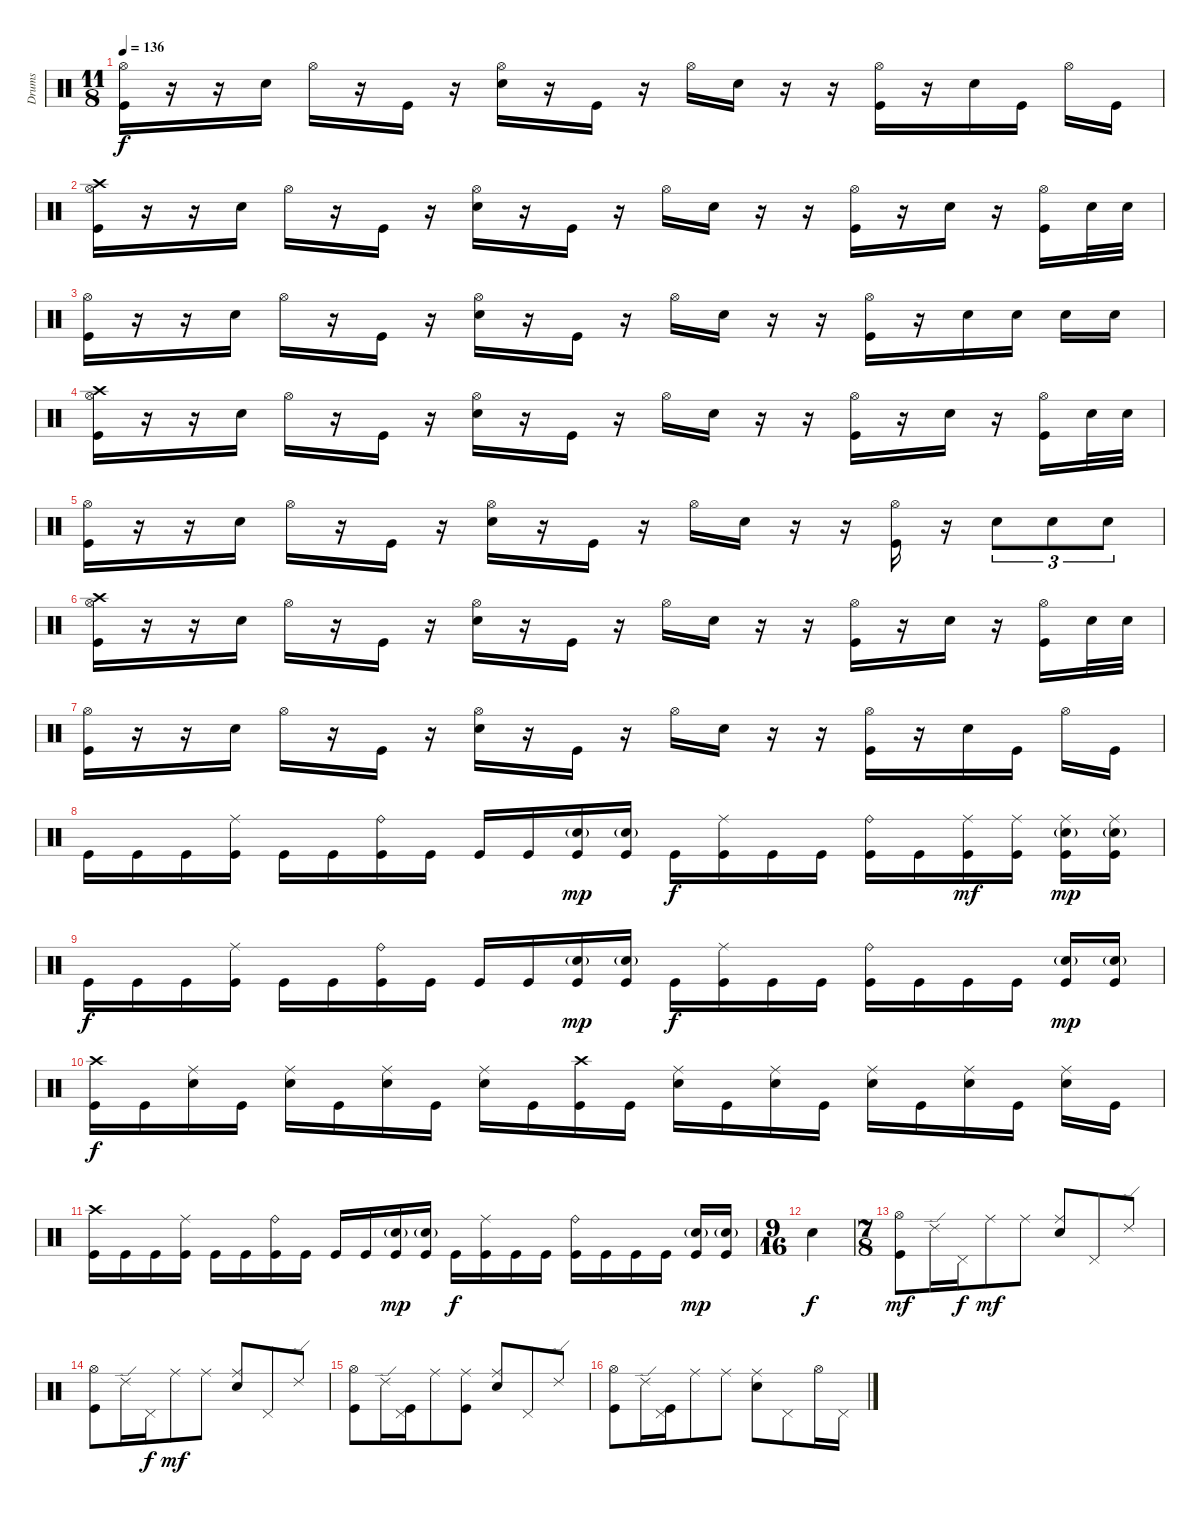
\track ("Drums" "Drums") {instrument percussion}
\staff {score}
\articulation defaults
\ts (11 8)
\tempo 136
\clef neutral
\ks c
("Hi-Hat (open)" "Kick (hit)").16{dy f} r.16 r.16 "Electric Snare (hit)".16 "Hi-Hat (open)".16 r.16 "Kick (hit)".16 r.16 ("Hi-Hat (open)" "Electric Snare (hit)").16 r.16 "Kick (hit)".16 r.16 "Hi-Hat (open)".16 "Electric Snare (hit)".16 r.16 r.16 ("Hi-Hat (open)" "Kick (hit)").16 r.16 "Electric Snare (hit)".16 "Kick (hit)".16 "Hi-Hat (open)".16 "Kick (hit)".16 |
("Crash high (hit)" "Hi-Hat (open)" "Kick (hit)").16 r.16 r.16 "Electric Snare (hit)".16 "Hi-Hat (open)".16 r.16 "Kick (hit)".16 r.16 ("Hi-Hat (open)" "Electric Snare (hit)").16 r.16 "Kick (hit)".16 r.16 "Hi-Hat (open)".16 "Electric Snare (hit)".16 r.16 r.16 ("Hi-Hat (open)" "Kick (hit)").16 r.16 "Electric Snare (hit)".16 r.16 ("Hi-Hat (open)" "Kick (hit)").16 "Electric Snare (hit)".32 "Electric Snare (hit)".32 |
("Hi-Hat (open)" "Kick (hit)").16 r.16 r.16 "Electric Snare (hit)".16 "Hi-Hat (open)".16 r.16 "Kick (hit)".16 r.16 ("Hi-Hat (open)" "Electric Snare (hit)").16 r.16 "Kick (hit)".16 r.16 "Hi-Hat (open)".16 "Electric Snare (hit)".16 r.16 r.16 ("Hi-Hat (open)" "Kick (hit)").16 r.16 "Electric Snare (hit)".16 "Electric Snare (hit)".16 "Electric Snare (hit)".16 "Electric Snare (hit)".16 |
("Crash high (hit)" "Hi-Hat (open)" "Kick (hit)").16 r.16 r.16 "Electric Snare (hit)".16 "Hi-Hat (open)".16 r.16 "Kick (hit)".16 r.16 ("Hi-Hat (open)" "Electric Snare (hit)").16 r.16 "Kick (hit)".16 r.16 "Hi-Hat (open)".16 "Electric Snare (hit)".16 r.16 r.16 ("Hi-Hat (open)" "Kick (hit)").16 r.16 "Electric Snare (hit)".16 r.16 ("Hi-Hat (open)" "Kick (hit)").16 "Electric Snare (hit)".32 "Electric Snare (hit)".32 |
("Hi-Hat (open)" "Kick (hit)").16 r.16 r.16 "Electric Snare (hit)".16 "Hi-Hat (open)".16 r.16 "Kick (hit)".16 r.16 ("Hi-Hat (open)" "Electric Snare (hit)").16 r.16 "Kick (hit)".16 r.16 "Hi-Hat (open)".16 "Electric Snare (hit)".16 r.16 r.16 ("Hi-Hat (open)" "Kick (hit)").16 r.16 "Electric Snare (hit)".8{tu (3 2)} "Electric Snare (hit)".8{tu (3 2)} "Electric Snare (hit)".8{tu (3 2)} |
("Crash high (hit)" "Hi-Hat (open)" "Kick (hit)").16 r.16 r.16 "Electric Snare (hit)".16 "Hi-Hat (open)".16 r.16 "Kick (hit)".16 r.16 ("Hi-Hat (open)" "Electric Snare (hit)").16 r.16 "Kick (hit)".16 r.16 "Hi-Hat (open)".16 "Electric Snare (hit)".16 r.16 r.16 ("Hi-Hat (open)" "Kick (hit)").16 r.16 "Electric Snare (hit)".16 r.16 ("Hi-Hat (open)" "Kick (hit)").16 "Electric Snare (hit)".32 "Electric Snare (hit)".32 |
("Hi-Hat (open)" "Kick (hit)").16 r.16 r.16 "Electric Snare (hit)".16 "Hi-Hat (open)".16 r.16 "Kick (hit)".16 r.16 ("Hi-Hat (open)" "Electric Snare (hit)").16 r.16 "Kick (hit)".16 r.16 "Hi-Hat (open)".16 "Electric Snare (hit)".16 r.16 r.16 ("Hi-Hat (open)" "Kick (hit)").16 r.16 "Electric Snare (hit)".16 "Kick (hit)".16 "Hi-Hat (open)".16 "Kick (hit)".16 |
"Kick (hit)".16 "Kick (hit)".16 "Kick (hit)".16 ("Ride (middle)" "Kick (hit)").16 "Kick (hit)".16 "Kick (hit)".16 ("Ride (bell)" "Kick (hit)").16 "Kick (hit)".16 "Kick (hit)".16 "Kick (hit)".16 ("Electric Snare (hit)"{g} "Kick (hit)").16{dy mp} ("Electric Snare (hit)"{g} "Kick (hit)").16 "Kick (hit)".16{dy f} ("Ride (middle)" "Kick (hit)").16 "Kick (hit)".16 "Kick (hit)".16 ("Ride (bell)" "Kick (hit)").16 "Kick (hit)".16 ("Ride (middle)" "Kick (hit)").16{dy mf} ("Ride (middle)" "Kick (hit)").16 ("Ride (middle)" "Electric Snare (hit)"{g} "Kick (hit)").16{dy mp} ("Ride (middle)" "Electric Snare (hit)"{g} "Kick (hit)").16 |
"Kick (hit)".16{dy f} "Kick (hit)".16 "Kick (hit)".16 ("Ride (middle)" "Kick (hit)").16 "Kick (hit)".16 "Kick (hit)".16 ("Ride (bell)" "Kick (hit)").16 "Kick (hit)".16 "Kick (hit)".16 "Kick (hit)".16 ("Electric Snare (hit)"{g} "Kick (hit)").16{dy mp} ("Electric Snare (hit)"{g} "Kick (hit)").16 "Kick (hit)".16{dy f} ("Ride (middle)" "Kick (hit)").16 "Kick (hit)".16 "Kick (hit)".16 ("Ride (bell)" "Kick (hit)").16 "Kick (hit)".16 "Kick (hit)".16 "Kick (hit)".16 ("Electric Snare (hit)"{g} "Kick (hit)").16{dy mp} ("Electric Snare (hit)"{g} "Kick (hit)").16 |
("Crash high (hit)" "Kick (hit)").16{dy f} "Kick (hit)".16 ("Ride (middle)" "Electric Snare (hit)").16 "Kick (hit)".16 ("Ride (middle)" "Electric Snare (hit)").16 "Kick (hit)".16 ("Ride (middle)" "Electric Snare (hit)").16 "Kick (hit)".16 ("Ride (middle)" "Electric Snare (hit)").16 "Kick (hit)".16 ("Crash high (hit)" "Kick (hit)").16 "Kick (hit)".16 ("Ride (middle)" "Electric Snare (hit)").16 "Kick (hit)".16 ("Ride (middle)" "Electric Snare (hit)").16 "Kick (hit)".16 ("Ride (middle)" "Electric Snare (hit)").16 "Kick (hit)".16 ("Ride (middle)" "Electric Snare (hit)").16 "Kick (hit)".16 ("Ride (middle)" "Electric Snare (hit)").16 "Kick (hit)".16 |
("Crash high (hit)" "Kick (hit)").16 "Kick (hit)".16 "Kick (hit)".16 ("Ride (middle)" "Kick (hit)").16 "Kick (hit)".16 "Kick (hit)".16 ("Ride (bell)" "Kick (hit)").16 "Kick (hit)".16 "Kick (hit)".16 "Kick (hit)".16 ("Electric Snare (hit)"{g} "Kick (hit)").16{dy mp} ("Electric Snare (hit)"{g} "Kick (hit)").16 "Kick (hit)".16{dy f} ("Ride (middle)" "Kick (hit)").16 "Kick (hit)".16 "Kick (hit)".16 ("Ride (bell)" "Kick (hit)").16 "Kick (hit)".16 "Kick (hit)".16 "Kick (hit)".16 ("Electric Snare (hit)"{g} "Kick (hit)").16{dy mp} ("Electric Snare (hit)"{g} "Kick (hit)").16 |
\ts (9 16)
"Electric Snare (hit)".4{dy f} |
\ts (7 8)
("Hi-Hat (open)" "Kick (hit)").8{dy mf} "Ride (edge) 2".16 "Pedal Hi-Hat (hit)".16{dy f} "Ride (middle)".8{dy mf} "Ride (middle)".8 ("Ride (middle)" "Electric Snare (hit)").8 "Pedal Hi-Hat (hit)".8 "Ride (edge) 2".8 |
("Hi-Hat (open)" "Kick (hit)").8 "Ride (edge) 2".16 "Pedal Hi-Hat (hit)".16{dy f} "Ride (middle)".8{dy mf} "Ride (middle)".8 ("Ride (middle)" "Electric Snare (hit)").8 "Pedal Hi-Hat (hit)".8 "Ride (edge) 2".8 |
("Hi-Hat (open)" "Kick (hit)").8 "Ride (edge) 2".16 ("Pedal Hi-Hat (hit)" "Kick (hit)").16 "Ride (middle)".8 ("Ride (middle)" "Kick (hit)").8 ("Ride (middle)" "Electric Snare (hit)").8 "Pedal Hi-Hat (hit)".8 "Ride (edge) 2".8 |
("Hi-Hat (open)" "Kick (hit)").8 "Ride (edge) 2".16 ("Pedal Hi-Hat (hit)" "Kick (hit)").16 "Ride (middle)".8 "Ride (middle)".8 ("Ride (middle)" "Electric Snare (hit)").8 "Pedal Hi-Hat (hit)".8 "Hi-Hat (open)".16 "Pedal Hi-Hat (hit)".16
